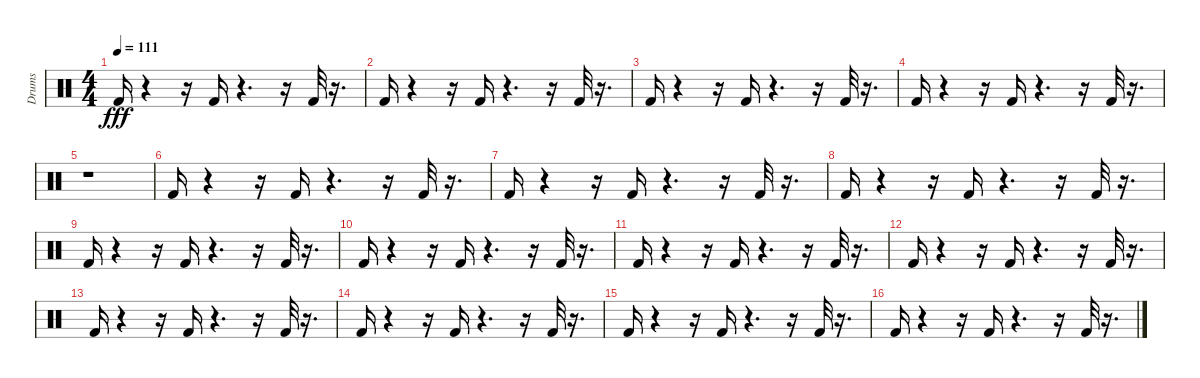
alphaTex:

\track ("Drums" "Drums") {instrument percussion}
\staff {score}
\articulation defaults
\ts (4 4)
\tempo 111
\clef neutral
\ks c "Kick (hit) 2".16{dy fff}
r.4 r.16 "Kick (hit) 2".16 r.4{d} r.16 "Kick (hit) 2".32 r.16{d} |
"Kick (hit) 2".16 r.4 r.16 "Kick (hit) 2".16 r.4{d} r.16 "Kick (hit) 2".32 r.16{d} |
"Kick (hit) 2".16 r.4 r.16 "Kick (hit) 2".16 r.4{d} r.16 "Kick (hit) 2".32 r.16{d} |
"Kick (hit) 2".16 r.4 r.16 "Kick (hit) 2".16 r.4{d} r.16 "Kick (hit) 2".32 r.16{d} |
r.1 |
"Kick (hit) 2".16 r.4 r.16 "Kick (hit) 2".16 r.4{d} r.16 "Kick (hit) 2".32 r.16{d} |
"Kick (hit) 2".16 r.4 r.16 "Kick (hit) 2".16 r.4{d} r.16 "Kick (hit) 2".32 r.16{d} |
"Kick (hit) 2".16 r.4 r.16 "Kick (hit) 2".16 r.4{d} r.16 "Kick (hit) 2".32 r.16{d} |
"Kick (hit) 2".16 r.4 r.16 "Kick (hit) 2".16 r.4{d} r.16 "Kick (hit) 2".32 r.16{d} |
"Kick (hit) 2".16 r.4 r.16 "Kick (hit) 2".16 r.4{d} r.16 "Kick (hit) 2".32 r.16{d} |
"Kick (hit) 2".16 r.4 r.16 "Kick (hit) 2".16 r.4{d} r.16 "Kick (hit) 2".32 r.16{d} |
"Kick (hit) 2".16 r.4 r.16 "Kick (hit) 2".16 r.4{d} r.16 "Kick (hit) 2".32 r.16{d} |
"Kick (hit) 2".16 r.4 r.16 "Kick (hit) 2".16 r.4{d} r.16 "Kick (hit) 2".32 r.16{d} |
"Kick (hit) 2".16 r.4 r.16 "Kick (hit) 2".16 r.4{d} r.16 "Kick (hit) 2".32 r.16{d} |
"Kick (hit) 2".16 r.4 r.16 "Kick (hit) 2".16 r.4{d} r.16 "Kick (hit) 2".32 r.16{d} |
"Kick (hit) 2".16 r.4 r.16 "Kick (hit) 2".16 r.4{d} r.16 "Kick (hit) 2".32 r.16{d}
